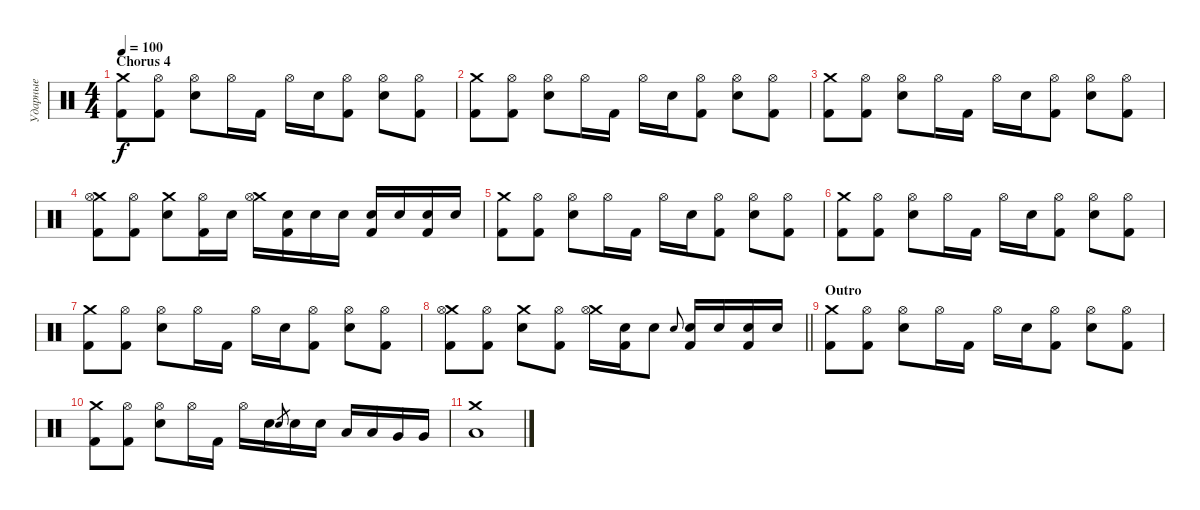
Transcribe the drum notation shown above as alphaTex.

\track ("Ударные" "Ударные") {instrument percussion}
\staff
\articulation defaults
\ts (4 4)
\section ("" "Chorus 4")
\tempo 100
\clef neutral
\ks c
("Crash medium (hit)" "Kick (hit) 2").8{dy f} ("Hi-Hat (open)" "Kick (hit) 2").8 ("Hi-Hat (open)" "Electric Snare (hit)").8 "Hi-Hat (open)".16 "Kick (hit) 2".16 "Hi-Hat (open)".16 "Electric Snare (hit)".16 ("Hi-Hat (open)" "Kick (hit) 2").8 ("Hi-Hat (open)" "Electric Snare (hit)").8 ("Hi-Hat (open)" "Kick (hit) 2").8 |
("Crash medium (hit)" "Kick (hit) 2").8 ("Hi-Hat (open)" "Kick (hit) 2").8 ("Hi-Hat (open)" "Electric Snare (hit)").8 "Hi-Hat (open)".16 "Kick (hit) 2".16 "Hi-Hat (open)".16 "Electric Snare (hit)".16 ("Hi-Hat (open)" "Kick (hit) 2").8 ("Hi-Hat (open)" "Electric Snare (hit)").8 ("Hi-Hat (open)" "Kick (hit) 2").8 |
("Crash medium (hit)" "Kick (hit) 2").8 ("Hi-Hat (open)" "Kick (hit) 2").8 ("Hi-Hat (open)" "Electric Snare (hit)").8 "Hi-Hat (open)".16 "Kick (hit) 2".16 "Hi-Hat (open)".16 "Electric Snare (hit)".16 ("Hi-Hat (open)" "Kick (hit) 2").8 ("Hi-Hat (open)" "Electric Snare (hit)").8 ("Hi-Hat (open)" "Kick (hit) 2").8 |
("Crash medium (hit)" "Hi-Hat (open)" "Kick (hit) 2").8 ("Hi-Hat (open)" "Kick (hit) 2").8 ("Crash medium (hit)" "Electric Snare (hit)").8 ("Hi-Hat (open)" "Kick (hit) 2").16 "Electric Snare (hit)".16 ("Crash medium (hit)" "Hi-Hat (open)").16 ("Electric Snare (hit)" "Kick (hit) 2").16 "Electric Snare (hit)".16 "Electric Snare (hit)".16 ("Electric Snare (hit)" "Kick (hit) 2").16 "Electric Snare (hit)".16 ("Electric Snare (hit)" "Kick (hit) 2").16 "Electric Snare (hit)".16 |
("Crash medium (hit)" "Kick (hit) 2").8 ("Hi-Hat (open)" "Kick (hit) 2").8 ("Hi-Hat (open)" "Electric Snare (hit)").8 "Hi-Hat (open)".16 "Kick (hit) 2".16 "Hi-Hat (open)".16 "Electric Snare (hit)".16 ("Hi-Hat (open)" "Kick (hit) 2").8 ("Hi-Hat (open)" "Electric Snare (hit)").8 ("Hi-Hat (open)" "Kick (hit) 2").8 |
("Crash medium (hit)" "Kick (hit) 2").8 ("Hi-Hat (open)" "Kick (hit) 2").8 ("Hi-Hat (open)" "Electric Snare (hit)").8 "Hi-Hat (open)".16 "Kick (hit) 2".16 "Hi-Hat (open)".16 "Electric Snare (hit)".16 ("Hi-Hat (open)" "Kick (hit) 2").8 ("Hi-Hat (open)" "Electric Snare (hit)").8 ("Hi-Hat (open)" "Kick (hit) 2").8 |
("Crash medium (hit)" "Kick (hit) 2").8 ("Hi-Hat (open)" "Kick (hit) 2").8 ("Hi-Hat (open)" "Electric Snare (hit)").8 "Hi-Hat (open)".16 "Kick (hit) 2".16 "Hi-Hat (open)".16 "Electric Snare (hit)".16 ("Hi-Hat (open)" "Kick (hit) 2").8 ("Hi-Hat (open)" "Electric Snare (hit)").8 ("Hi-Hat (open)" "Kick (hit) 2").8 |
\barLineRight lightlight
("Crash medium (hit)" "Hi-Hat (open)" "Kick (hit) 2").8 ("Hi-Hat (open)" "Kick (hit) 2").8 ("Crash medium (hit)" "Electric Snare (hit)").8 ("Hi-Hat (open)" "Kick (hit) 2").8 ("Crash medium (hit)" "Hi-Hat (open)").16 ("Electric Snare (hit)" "Kick (hit) 2").16 "Electric Snare (hit)".8 "Electric Snare (hit)".8{gr onbeat} ("Electric Snare (hit)" "Kick (hit) 2").16 "Electric Snare (hit)".16 ("Electric Snare (hit)" "Kick (hit) 2").16 "Electric Snare (hit)".16 |
\section ("" "Outro")
("Crash medium (hit)" "Kick (hit) 2").8 ("Hi-Hat (open)" "Kick (hit) 2").8 ("Hi-Hat (open)" "Electric Snare (hit)").8 "Hi-Hat (open)".16 "Kick (hit) 2".16 "Hi-Hat (open)".16 "Electric Snare (hit)".16 ("Hi-Hat (open)" "Kick (hit) 2").8 ("Hi-Hat (open)" "Electric Snare (hit)").8 ("Hi-Hat (open)" "Kick (hit) 2").8 |
("Crash medium (hit)" "Kick (hit) 2").8 ("Hi-Hat (open)" "Kick (hit) 2").8 ("Hi-Hat (open)" "Electric Snare (hit)").8 "Hi-Hat (open)".16 "Kick (hit) 2".16 "Hi-Hat (open)".16 "Electric Snare (hit)".16 "Electric Snare (hit)".8{gr} "Electric Snare (hit)".16 "Electric Snare (hit)".16 "Low Tom (hit)".16 "Low Tom (hit)".16 "Very Low Tom (hit)".16 "Very Low Tom (hit)".16 |
("Crash medium (hit)" "Low Floor Tom (hit)").1
